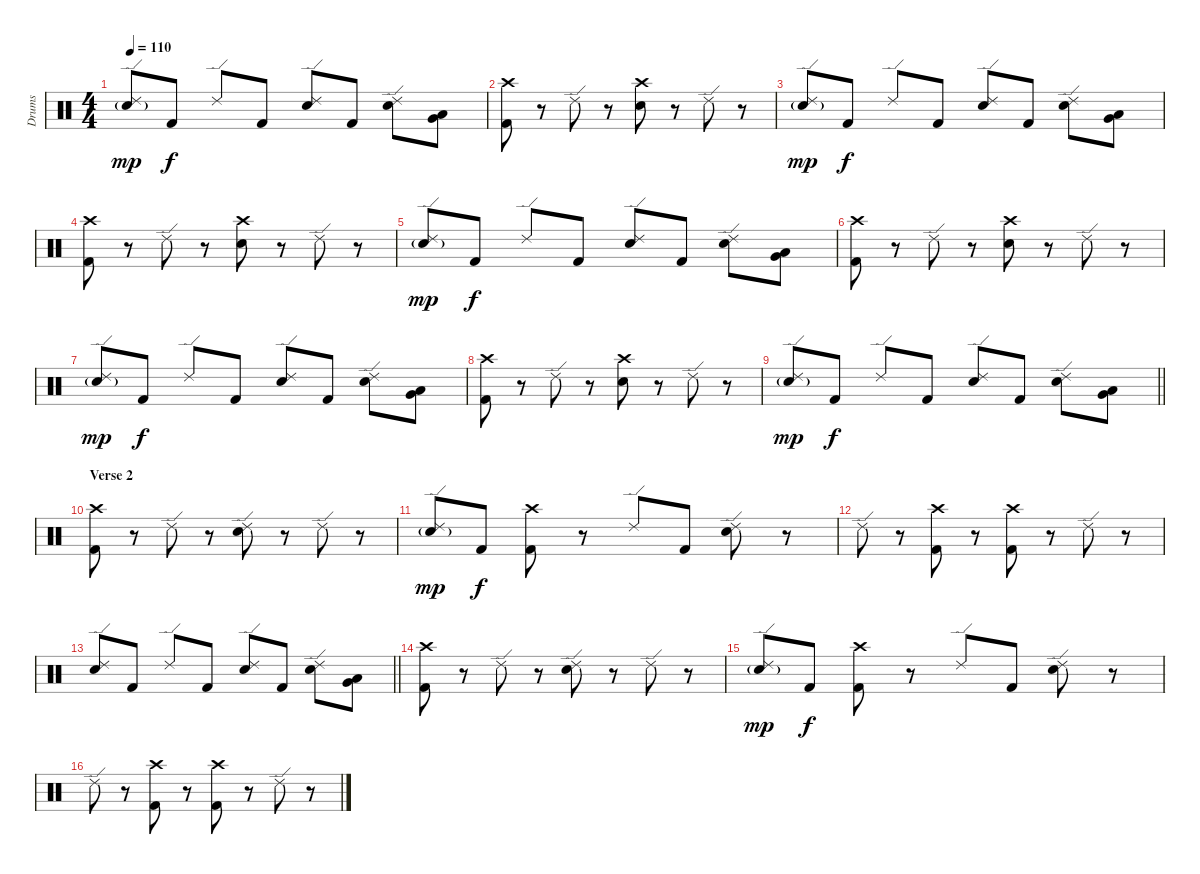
\track ("Drums" "Drums") {instrument percussion}
\staff {score}
\articulation defaults
\ts (4 4)
\tempo 110
\clef neutral
\ks c
("Ride (edge) 2" "Snare (hit) 2"{g}).8{dy mp} "Kick (hit) 2".8{dy f} "Ride (edge) 2".8 "Kick (hit) 2".8 ("Ride (edge) 2" "Snare (hit) 2").8 "Kick (hit) 2".8 ("Ride (edge) 2" "Snare (hit) 2").8 ("Very Low Tom (hit)" "Low Floor Tom (hit)").8 |
("Crash high (hit)" "Kick (hit) 2").8 r.8 "Ride (edge) 2".8 r.8 ("Crash high (hit)" "Snare (hit) 2").8 r.8 "Ride (edge) 2".8 r.8 |
("Ride (edge) 2" "Snare (hit) 2"{g}).8{dy mp} "Kick (hit) 2".8{dy f} "Ride (edge) 2".8 "Kick (hit) 2".8 ("Ride (edge) 2" "Snare (hit) 2").8 "Kick (hit) 2".8 ("Ride (edge) 2" "Snare (hit) 2").8 ("Very Low Tom (hit)" "Low Floor Tom (hit)").8 |
("Crash high (hit)" "Kick (hit) 2").8 r.8 "Ride (edge) 2".8 r.8 ("Crash high (hit)" "Snare (hit) 2").8 r.8 "Ride (edge) 2".8 r.8 |
("Ride (edge) 2" "Snare (hit) 2"{g}).8{dy mp} "Kick (hit) 2".8{dy f} "Ride (edge) 2".8 "Kick (hit) 2".8 ("Ride (edge) 2" "Snare (hit) 2").8 "Kick (hit) 2".8 ("Ride (edge) 2" "Snare (hit) 2").8 ("Very Low Tom (hit)" "Low Floor Tom (hit)").8 |
("Crash high (hit)" "Kick (hit) 2").8 r.8 "Ride (edge) 2".8 r.8 ("Crash high (hit)" "Snare (hit) 2").8 r.8 "Ride (edge) 2".8 r.8 |
("Ride (edge) 2" "Snare (hit) 2"{g}).8{dy mp} "Kick (hit) 2".8{dy f} "Ride (edge) 2".8 "Kick (hit) 2".8 ("Ride (edge) 2" "Snare (hit) 2").8 "Kick (hit) 2".8 ("Ride (edge) 2" "Snare (hit) 2").8 ("Very Low Tom (hit)" "Low Floor Tom (hit)").8 |
("Crash high (hit)" "Kick (hit) 2").8 r.8 "Ride (edge) 2".8 r.8 ("Crash high (hit)" "Snare (hit) 2").8 r.8 "Ride (edge) 2".8 r.8 |
\barLineRight lightlight
("Ride (edge) 2" "Snare (hit) 2"{g}).8{dy mp} "Kick (hit) 2".8{dy f} "Ride (edge) 2".8 "Kick (hit) 2".8 ("Ride (edge) 2" "Snare (hit) 2").8 "Kick (hit) 2".8 ("Ride (edge) 2" "Snare (hit) 2").8 ("Very Low Tom (hit)" "Low Floor Tom (hit)").8 |
\section ("" "Verse 2")
("Crash high (hit)" "Kick (hit) 2").8 r.8 "Ride (edge) 2".8 r.8 ("Ride (edge) 2" "Snare (hit) 2").8 r.8 "Ride (edge) 2".8 r.8 |
("Ride (edge) 2" "Snare (hit) 2"{g}).8{dy mp} "Kick (hit) 2".8{dy f} ("Crash high (hit)" "Kick (hit) 2").8 r.8 "Ride (edge) 2".8 "Kick (hit) 2".8 ("Ride (edge) 2" "Snare (hit) 2").8 r.8 |
"Ride (edge) 2".8 r.8 ("Crash high (hit)" "Kick (hit) 2").8 r.8 ("Crash high (hit)" "Kick (hit) 2").8 r.8 "Ride (edge) 2".8 r.8 |
\barLineRight lightlight
("Ride (edge) 2" "Snare (hit) 2").8 "Kick (hit) 2".8 "Ride (edge) 2".8 "Kick (hit) 2".8 ("Ride (edge) 2" "Snare (hit) 2").8 "Kick (hit) 2".8 ("Ride (edge) 2" "Snare (hit) 2").8 ("Very Low Tom (hit)" "Low Floor Tom (hit)").8 |
("Crash high (hit)" "Kick (hit) 2").8 r.8 "Ride (edge) 2".8 r.8 ("Ride (edge) 2" "Snare (hit) 2").8 r.8 "Ride (edge) 2".8 r.8 |
("Ride (edge) 2" "Snare (hit) 2"{g}).8{dy mp} "Kick (hit) 2".8{dy f} ("Crash high (hit)" "Kick (hit) 2").8 r.8 "Ride (edge) 2".8 "Kick (hit) 2".8 ("Ride (edge) 2" "Snare (hit) 2").8 r.8 |
"Ride (edge) 2".8 r.8 ("Crash high (hit)" "Kick (hit) 2").8 r.8 ("Crash high (hit)" "Kick (hit) 2").8 r.8 "Ride (edge) 2".8 r.8
